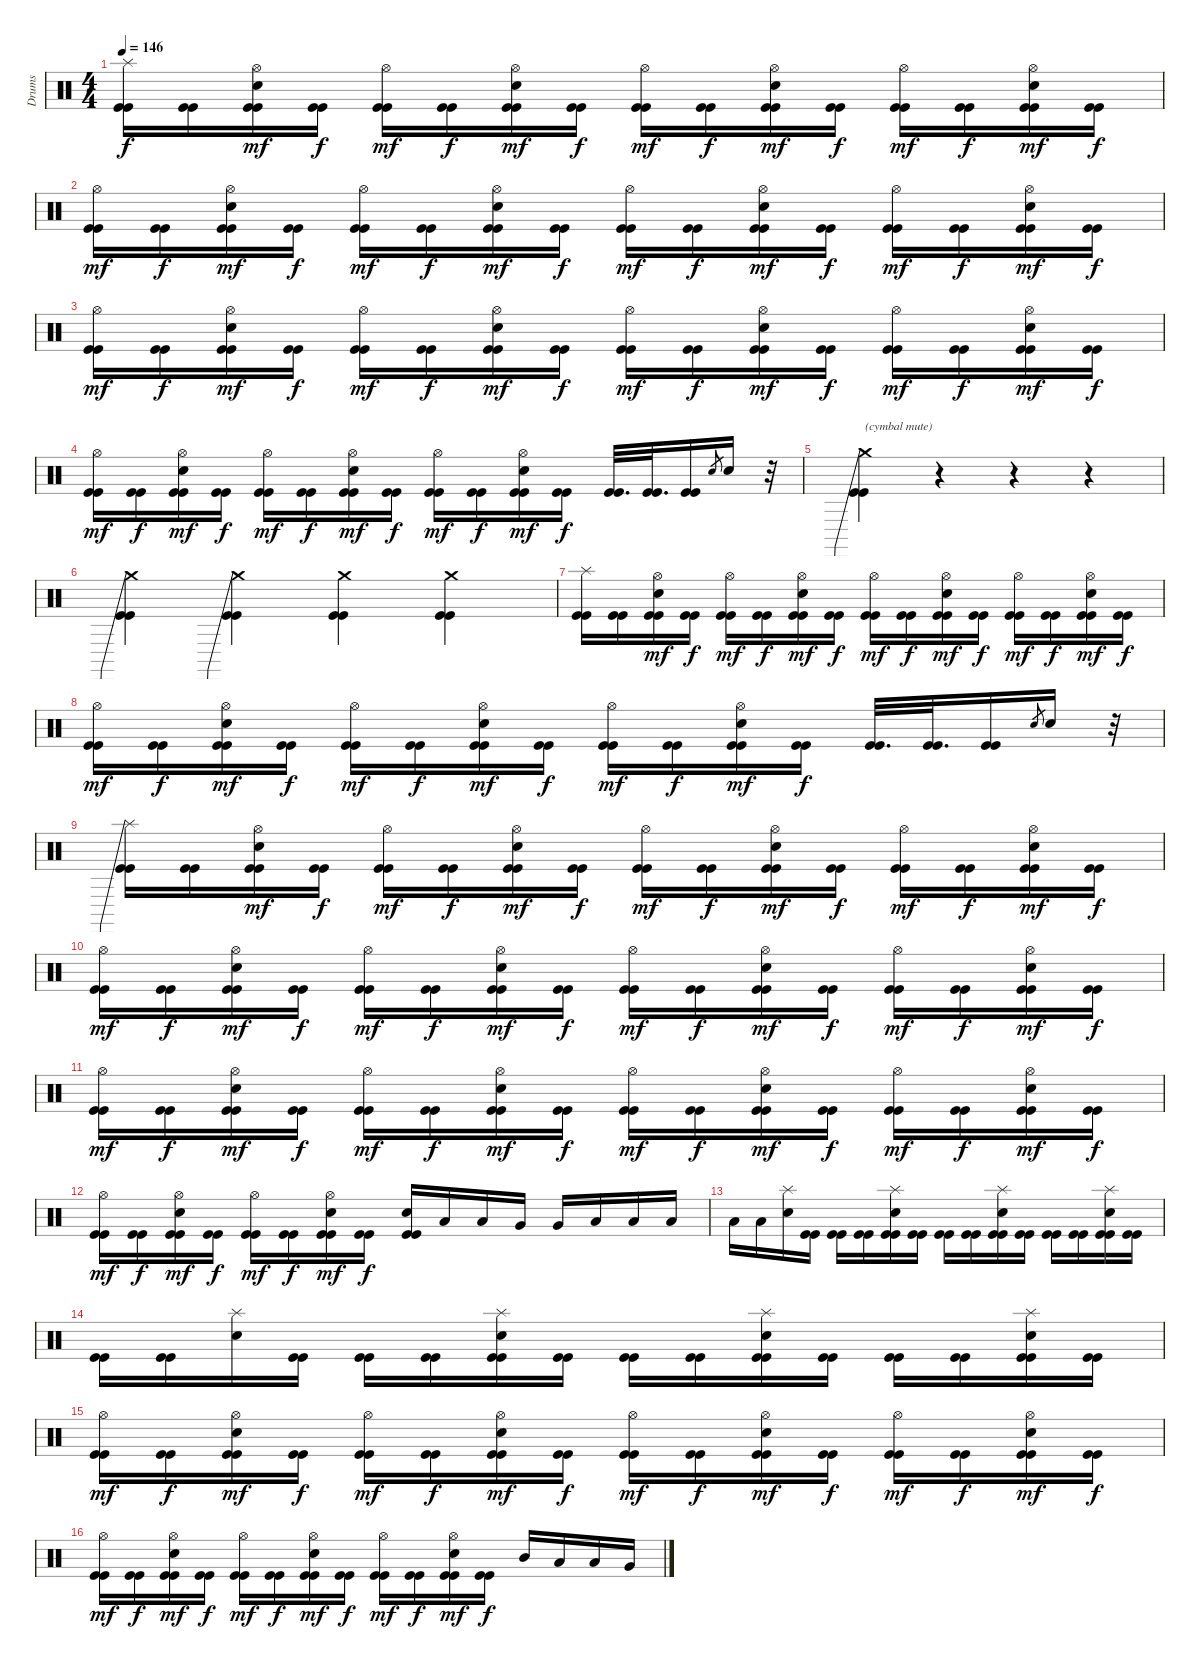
\track ("Drums" "Drums") {instrument percussion}
\staff {score}
\articulation defaults
\ts (4 4)
\tempo 146
\clef neutral
\ks c
("Splash (hit)" "Kick (hit)" "Kick (hit)").16{dy f} ("Kick (hit)" "Kick (hit)").16 ("Hi-Hat (open)" "Electric Snare (hit)" "Kick (hit)" "Kick (hit)").16{dy mf} ("Kick (hit)" "Kick (hit)").16{dy f} ("Hi-Hat (open)" "Kick (hit)" "Kick (hit)").16{dy mf} ("Kick (hit)" "Kick (hit)").16{dy f} ("Hi-Hat (open)" "Electric Snare (hit)" "Kick (hit)" "Kick (hit)").16{dy mf} ("Kick (hit)" "Kick (hit)").16{dy f} ("Hi-Hat (open)" "Kick (hit)" "Kick (hit)").16{dy mf} ("Kick (hit)" "Kick (hit)").16{dy f} ("Hi-Hat (open)" "Electric Snare (hit)" "Kick (hit)" "Kick (hit)").16{dy mf} ("Kick (hit)" "Kick (hit)").16{dy f} ("Hi-Hat (open)" "Kick (hit)" "Kick (hit)").16{dy mf} ("Kick (hit)" "Kick (hit)").16{dy f} ("Hi-Hat (open)" "Electric Snare (hit)" "Kick (hit)" "Kick (hit)").16{dy mf} ("Kick (hit)" "Kick (hit)").16{dy f} |
("Hi-Hat (open)" "Kick (hit)" "Kick (hit)").16{dy mf} ("Kick (hit)" "Kick (hit)").16{dy f} ("Hi-Hat (open)" "Electric Snare (hit)" "Kick (hit)" "Kick (hit)").16{dy mf} ("Kick (hit)" "Kick (hit)").16{dy f} ("Hi-Hat (open)" "Kick (hit)" "Kick (hit)").16{dy mf} ("Kick (hit)" "Kick (hit)").16{dy f} ("Hi-Hat (open)" "Electric Snare (hit)" "Kick (hit)" "Kick (hit)").16{dy mf} ("Kick (hit)" "Kick (hit)").16{dy f} ("Hi-Hat (open)" "Kick (hit)" "Kick (hit)").16{dy mf} ("Kick (hit)" "Kick (hit)").16{dy f} ("Hi-Hat (open)" "Electric Snare (hit)" "Kick (hit)" "Kick (hit)").16{dy mf} ("Kick (hit)" "Kick (hit)").16{dy f} ("Hi-Hat (open)" "Kick (hit)" "Kick (hit)").16{dy mf} ("Kick (hit)" "Kick (hit)").16{dy f} ("Hi-Hat (open)" "Electric Snare (hit)" "Kick (hit)" "Kick (hit)").16{dy mf} ("Kick (hit)" "Kick (hit)").16{dy f} |
("Hi-Hat (open)" "Kick (hit)" "Kick (hit)").16{dy mf} ("Kick (hit)" "Kick (hit)").16{dy f} ("Hi-Hat (open)" "Electric Snare (hit)" "Kick (hit)" "Kick (hit)").16{dy mf} ("Kick (hit)" "Kick (hit)").16{dy f} ("Hi-Hat (open)" "Kick (hit)" "Kick (hit)").16{dy mf} ("Kick (hit)" "Kick (hit)").16{dy f} ("Hi-Hat (open)" "Electric Snare (hit)" "Kick (hit)" "Kick (hit)").16{dy mf} ("Kick (hit)" "Kick (hit)").16{dy f} ("Hi-Hat (open)" "Kick (hit)" "Kick (hit)").16{dy mf} ("Kick (hit)" "Kick (hit)").16{dy f} ("Hi-Hat (open)" "Electric Snare (hit)" "Kick (hit)" "Kick (hit)").16{dy mf} ("Kick (hit)" "Kick (hit)").16{dy f} ("Hi-Hat (open)" "Kick (hit)" "Kick (hit)").16{dy mf} ("Kick (hit)" "Kick (hit)").16{dy f} ("Hi-Hat (open)" "Electric Snare (hit)" "Kick (hit)" "Kick (hit)").16{dy mf} ("Kick (hit)" "Kick (hit)").16{dy f} |
("Hi-Hat (open)" "Kick (hit)" "Kick (hit)").16{dy mf} ("Kick (hit)" "Kick (hit)").16{dy f} ("Hi-Hat (open)" "Electric Snare (hit)" "Kick (hit)" "Kick (hit)").16{dy mf} ("Kick (hit)" "Kick (hit)").16{dy f} ("Hi-Hat (open)" "Kick (hit)" "Kick (hit)").16{dy mf} ("Kick (hit)" "Kick (hit)").16{dy f} ("Hi-Hat (open)" "Electric Snare (hit)" "Kick (hit)" "Kick (hit)").16{dy mf} ("Kick (hit)" "Kick (hit)").16{dy f} ("Hi-Hat (open)" "Kick (hit)" "Kick (hit)").16{dy mf} ("Kick (hit)" "Kick (hit)").16{dy f} ("Hi-Hat (open)" "Electric Snare (hit)" "Kick (hit)" "Kick (hit)").16{dy mf} ("Kick (hit)" "Kick (hit)").16{dy f} ("Kick (hit)" "Kick (hit)").32{d} ("Kick (hit)" "Kick (hit)").32{d} ("Kick (hit)" "Kick (hit)").16 "Electric Snare (hit)".8{gr} "Electric Snare (hit)".16 r.32 |
("Crash medium (hit)"{be (prebend 0 3 60 3)} "Kick (hit)" "Kick (hit)").4{txt "(cymbal mute)"} r.4{volume 0} r.4 r.4 |
("Crash medium (hit)"{be (prebend 0 5 60 5)} "Kick (hit)" "Kick (hit)").4{volume 11} ("Crash medium (hit)"{be (prebend 0 2 60 2)} "Kick (hit)" "Kick (hit)").4 ("Crash medium (hit)" "Kick (hit)" "Kick (hit)").4 ("Crash medium (hit)" "Kick (hit)" "Kick (hit)").4 |
("Splash (hit)" "Kick (hit)" "Kick (hit)").16 ("Kick (hit)" "Kick (hit)").16 ("Hi-Hat (open)" "Electric Snare (hit)" "Kick (hit)" "Kick (hit)").16{dy mf} ("Kick (hit)" "Kick (hit)").16{dy f} ("Hi-Hat (open)" "Kick (hit)" "Kick (hit)").16{dy mf} ("Kick (hit)" "Kick (hit)").16{dy f} ("Hi-Hat (open)" "Electric Snare (hit)" "Kick (hit)" "Kick (hit)").16{dy mf} ("Kick (hit)" "Kick (hit)").16{dy f} ("Hi-Hat (open)" "Kick (hit)" "Kick (hit)").16{dy mf} ("Kick (hit)" "Kick (hit)").16{dy f} ("Hi-Hat (open)" "Electric Snare (hit)" "Kick (hit)" "Kick (hit)").16{dy mf} ("Kick (hit)" "Kick (hit)").16{dy f} ("Hi-Hat (open)" "Kick (hit)" "Kick (hit)").16{dy mf} ("Kick (hit)" "Kick (hit)").16{dy f} ("Hi-Hat (open)" "Electric Snare (hit)" "Kick (hit)" "Kick (hit)").16{dy mf} ("Kick (hit)" "Kick (hit)").16{dy f} |
("Hi-Hat (open)" "Kick (hit)" "Kick (hit)").16{dy mf} ("Kick (hit)" "Kick (hit)").16{dy f} ("Hi-Hat (open)" "Electric Snare (hit)" "Kick (hit)" "Kick (hit)").16{dy mf} ("Kick (hit)" "Kick (hit)").16{dy f} ("Hi-Hat (open)" "Kick (hit)" "Kick (hit)").16{dy mf} ("Kick (hit)" "Kick (hit)").16{dy f} ("Hi-Hat (open)" "Electric Snare (hit)" "Kick (hit)" "Kick (hit)").16{dy mf} ("Kick (hit)" "Kick (hit)").16{dy f} ("Hi-Hat (open)" "Kick (hit)" "Kick (hit)").16{dy mf} ("Kick (hit)" "Kick (hit)").16{dy f} ("Hi-Hat (open)" "Electric Snare (hit)" "Kick (hit)" "Kick (hit)").16{dy mf} ("Kick (hit)" "Kick (hit)").16{dy f} ("Kick (hit)" "Kick (hit)").32{d} ("Kick (hit)" "Kick (hit)").32{d} ("Kick (hit)" "Kick (hit)").16 "Electric Snare (hit)".8{gr} "Electric Snare (hit)".16 r.32 |
("Splash (hit)"{be (prebend 0 4 60 4)} "Kick (hit)" "Kick (hit)").16 ("Kick (hit)" "Kick (hit)").16 ("Hi-Hat (open)" "Electric Snare (hit)" "Kick (hit)" "Kick (hit)").16{dy mf} ("Kick (hit)" "Kick (hit)").16{dy f} ("Hi-Hat (open)" "Kick (hit)" "Kick (hit)").16{dy mf} ("Kick (hit)" "Kick (hit)").16{dy f} ("Hi-Hat (open)" "Electric Snare (hit)" "Kick (hit)" "Kick (hit)").16{dy mf} ("Kick (hit)" "Kick (hit)").16{dy f} ("Hi-Hat (open)" "Kick (hit)" "Kick (hit)").16{dy mf} ("Kick (hit)" "Kick (hit)").16{dy f} ("Hi-Hat (open)" "Electric Snare (hit)" "Kick (hit)" "Kick (hit)").16{dy mf} ("Kick (hit)" "Kick (hit)").16{dy f} ("Hi-Hat (open)" "Kick (hit)" "Kick (hit)").16{dy mf} ("Kick (hit)" "Kick (hit)").16{dy f} ("Hi-Hat (open)" "Electric Snare (hit)" "Kick (hit)" "Kick (hit)").16{dy mf} ("Kick (hit)" "Kick (hit)").16{dy f} |
("Hi-Hat (open)" "Kick (hit)" "Kick (hit)").16{dy mf} ("Kick (hit)" "Kick (hit)").16{dy f} ("Hi-Hat (open)" "Electric Snare (hit)" "Kick (hit)" "Kick (hit)").16{dy mf} ("Kick (hit)" "Kick (hit)").16{dy f} ("Hi-Hat (open)" "Kick (hit)" "Kick (hit)").16{dy mf} ("Kick (hit)" "Kick (hit)").16{dy f} ("Hi-Hat (open)" "Electric Snare (hit)" "Kick (hit)" "Kick (hit)").16{dy mf} ("Kick (hit)" "Kick (hit)").16{dy f} ("Hi-Hat (open)" "Kick (hit)" "Kick (hit)").16{dy mf} ("Kick (hit)" "Kick (hit)").16{dy f} ("Hi-Hat (open)" "Electric Snare (hit)" "Kick (hit)" "Kick (hit)").16{dy mf} ("Kick (hit)" "Kick (hit)").16{dy f} ("Hi-Hat (open)" "Kick (hit)" "Kick (hit)").16{dy mf} ("Kick (hit)" "Kick (hit)").16{dy f} ("Hi-Hat (open)" "Electric Snare (hit)" "Kick (hit)" "Kick (hit)").16{dy mf} ("Kick (hit)" "Kick (hit)").16{dy f} |
("Hi-Hat (open)" "Kick (hit)" "Kick (hit)").16{dy mf} ("Kick (hit)" "Kick (hit)").16{dy f} ("Hi-Hat (open)" "Electric Snare (hit)" "Kick (hit)" "Kick (hit)").16{dy mf} ("Kick (hit)" "Kick (hit)").16{dy f} ("Hi-Hat (open)" "Kick (hit)" "Kick (hit)").16{dy mf} ("Kick (hit)" "Kick (hit)").16{dy f} ("Hi-Hat (open)" "Electric Snare (hit)" "Kick (hit)" "Kick (hit)").16{dy mf} ("Kick (hit)" "Kick (hit)").16{dy f} ("Hi-Hat (open)" "Kick (hit)" "Kick (hit)").16{dy mf} ("Kick (hit)" "Kick (hit)").16{dy f} ("Hi-Hat (open)" "Electric Snare (hit)" "Kick (hit)" "Kick (hit)").16{dy mf} ("Kick (hit)" "Kick (hit)").16{dy f} ("Hi-Hat (open)" "Kick (hit)" "Kick (hit)").16{dy mf} ("Kick (hit)" "Kick (hit)").16{dy f} ("Hi-Hat (open)" "Electric Snare (hit)" "Kick (hit)" "Kick (hit)").16{dy mf} ("Kick (hit)" "Kick (hit)").16{dy f} |
("Hi-Hat (open)" "Kick (hit)" "Kick (hit)").16{dy mf} ("Kick (hit)" "Kick (hit)").16{dy f} ("Hi-Hat (open)" "Electric Snare (hit)" "Kick (hit)" "Kick (hit)").16{dy mf} ("Kick (hit)" "Kick (hit)").16{dy f} ("Hi-Hat (open)" "Kick (hit)" "Kick (hit)").16{dy mf} ("Kick (hit)" "Kick (hit)").16{dy f} ("Hi-Hat (open)" "Electric Snare (hit)" "Kick (hit)" "Kick (hit)").16{dy mf} ("Kick (hit)" "Kick (hit)").16{dy f} ("Electric Snare (hit)" "Kick (hit)" "Kick (hit)").16 "Low Tom (hit)".16 "Low Tom (hit)".16 "Very Low Tom (hit)".16 "Very Low Tom (hit)".16 "Low Floor Tom (hit)".16 "Low Floor Tom (hit)".16 "Low Floor Tom (hit)".16 |
"Low Floor Tom (hit)".16 "Low Floor Tom (hit)".16 ("Splash (hit)" "Electric Snare (hit)").16 ("Kick (hit)" "Kick (hit)").16 ("Kick (hit)" "Kick (hit)").16 ("Kick (hit)" "Kick (hit)").16 ("Splash (hit)" "Electric Snare (hit)" "Kick (hit)" "Kick (hit)").16 ("Kick (hit)" "Kick (hit)").16 ("Kick (hit)" "Kick (hit)").16 ("Kick (hit)" "Kick (hit)").16 ("Splash (hit)" "Electric Snare (hit)" "Kick (hit)" "Kick (hit)").16 ("Kick (hit)" "Kick (hit)").16 ("Kick (hit)" "Kick (hit)").16 ("Kick (hit)" "Kick (hit)").16 ("Splash (hit)" "Electric Snare (hit)" "Kick (hit)" "Kick (hit)").16 ("Kick (hit)" "Kick (hit)").16 |
("Kick (hit)" "Kick (hit)").16 ("Kick (hit)" "Kick (hit)").16 ("Splash (hit)" "Electric Snare (hit)").16 ("Kick (hit)" "Kick (hit)").16 ("Kick (hit)" "Kick (hit)").16 ("Kick (hit)" "Kick (hit)").16 ("Splash (hit)" "Electric Snare (hit)" "Kick (hit)" "Kick (hit)").16 ("Kick (hit)" "Kick (hit)").16 ("Kick (hit)" "Kick (hit)").16 ("Kick (hit)" "Kick (hit)").16 ("Splash (hit)" "Electric Snare (hit)" "Kick (hit)" "Kick (hit)").16 ("Kick (hit)" "Kick (hit)").16 ("Kick (hit)" "Kick (hit)").16 ("Kick (hit)" "Kick (hit)").16 ("Splash (hit)" "Electric Snare (hit)" "Kick (hit)" "Kick (hit)").16 ("Kick (hit)" "Kick (hit)").16 |
("Hi-Hat (open)" "Kick (hit)" "Kick (hit)").16{dy mf} ("Kick (hit)" "Kick (hit)").16{dy f} ("Hi-Hat (open)" "Electric Snare (hit)" "Kick (hit)" "Kick (hit)").16{dy mf} ("Kick (hit)" "Kick (hit)").16{dy f} ("Hi-Hat (open)" "Kick (hit)" "Kick (hit)").16{dy mf} ("Kick (hit)" "Kick (hit)").16{dy f} ("Hi-Hat (open)" "Electric Snare (hit)" "Kick (hit)" "Kick (hit)").16{dy mf} ("Kick (hit)" "Kick (hit)").16{dy f} ("Hi-Hat (open)" "Kick (hit)" "Kick (hit)").16{dy mf} ("Kick (hit)" "Kick (hit)").16{dy f} ("Hi-Hat (open)" "Electric Snare (hit)" "Kick (hit)" "Kick (hit)").16{dy mf} ("Kick (hit)" "Kick (hit)").16{dy f} ("Hi-Hat (open)" "Kick (hit)" "Kick (hit)").16{dy mf} ("Kick (hit)" "Kick (hit)").16{dy f} ("Hi-Hat (open)" "Electric Snare (hit)" "Kick (hit)" "Kick (hit)").16{dy mf} ("Kick (hit)" "Kick (hit)").16{dy f} |
("Hi-Hat (open)" "Kick (hit)" "Kick (hit)").16{dy mf} ("Kick (hit)" "Kick (hit)").16{dy f} ("Hi-Hat (open)" "Electric Snare (hit)" "Kick (hit)" "Kick (hit)").16{dy mf} ("Kick (hit)" "Kick (hit)").16{dy f} ("Hi-Hat (open)" "Kick (hit)" "Kick (hit)").16{dy mf} ("Kick (hit)" "Kick (hit)").16{dy f} ("Hi-Hat (open)" "Electric Snare (hit)" "Kick (hit)" "Kick (hit)").16{dy mf} ("Kick (hit)" "Kick (hit)").16{dy f} ("Hi-Hat (open)" "Kick (hit)" "Kick (hit)").16{dy mf} ("Kick (hit)" "Kick (hit)").16{dy f} ("Hi-Hat (open)" "Electric Snare (hit)" "Kick (hit)" "Kick (hit)").16{dy mf} ("Kick (hit)" "Kick (hit)").16{dy f} "Mid Tom (hit)".16 "Low Tom (hit)".16 "Low Tom (hit)".16 "Very Low Tom (hit)".16
